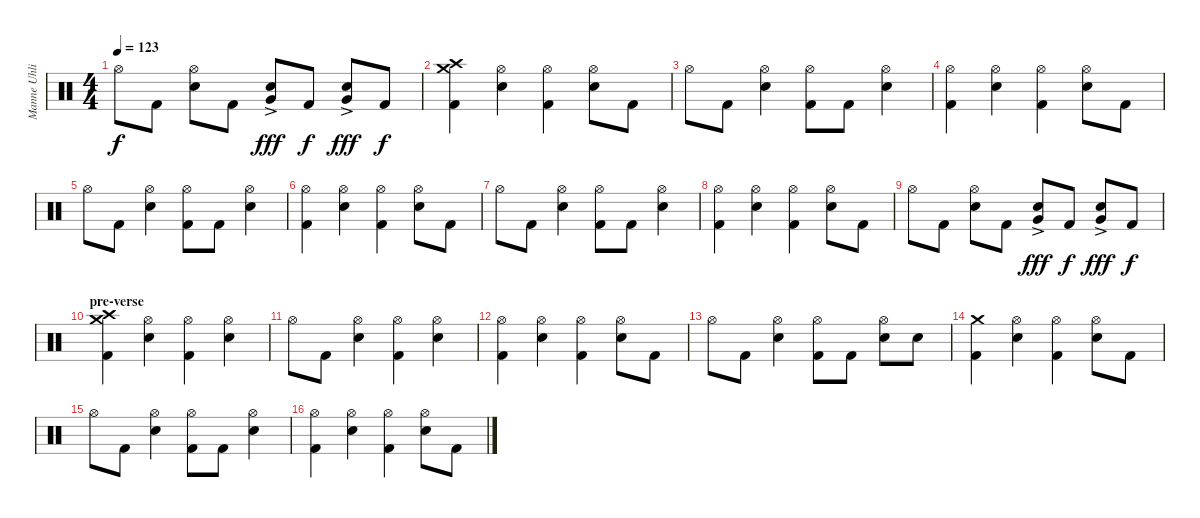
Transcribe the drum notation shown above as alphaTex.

\track ("Manne Uhlig" "Manne Uhli") {instrument percussion}
\staff {score}
\articulation defaults
\ts (4 4)
\tempo 123
\clef neutral
\ks c "Hi-Hat (open)".8{dy f} "Kick (hit) 2".8
("Hi-Hat (open)" "Snare (hit) 2").8 "Kick (hit) 2".8 ("Snare (hit) 2" "Very Low Tom (hit)"{ac}).8{dy fff} "Kick (hit) 2".8{dy f} ("Snare (hit) 2" "Very Low Tom (hit)"{ac}).8{dy fff} "Kick (hit) 2".8{dy f} |
("Crash high (hit)" "Crash medium (hit)" "Kick (hit) 2").4 ("Hi-Hat (open)" "Snare (hit) 2").4 ("Hi-Hat (open)" "Kick (hit) 2").4 ("Hi-Hat (open)" "Snare (hit) 2").8 "Kick (hit) 2".8 |
"Hi-Hat (open)".8 "Kick (hit) 2".8 ("Hi-Hat (open)" "Snare (hit) 2").4 ("Hi-Hat (open)" "Kick (hit) 2").8 "Kick (hit) 2".8 ("Hi-Hat (open)" "Snare (hit) 2").4 |
("Hi-Hat (open)" "Kick (hit) 2").4 ("Hi-Hat (open)" "Snare (hit) 2").4 ("Hi-Hat (open)" "Kick (hit) 2").4 ("Hi-Hat (open)" "Snare (hit) 2").8 "Kick (hit) 2".8 |
"Hi-Hat (open)".8 "Kick (hit) 2".8 ("Hi-Hat (open)" "Snare (hit) 2").4 ("Hi-Hat (open)" "Kick (hit) 2").8 "Kick (hit) 2".8 ("Hi-Hat (open)" "Snare (hit) 2").4 |
("Hi-Hat (open)" "Kick (hit) 2").4 ("Hi-Hat (open)" "Snare (hit) 2").4 ("Hi-Hat (open)" "Kick (hit) 2").4 ("Hi-Hat (open)" "Snare (hit) 2").8 "Kick (hit) 2".8 |
"Hi-Hat (open)".8 "Kick (hit) 2".8 ("Hi-Hat (open)" "Snare (hit) 2").4 ("Hi-Hat (open)" "Kick (hit) 2").8 "Kick (hit) 2".8 ("Hi-Hat (open)" "Snare (hit) 2").4 |
("Hi-Hat (open)" "Kick (hit) 2").4 ("Hi-Hat (open)" "Snare (hit) 2").4 ("Hi-Hat (open)" "Kick (hit) 2").4 ("Hi-Hat (open)" "Snare (hit) 2").8 "Kick (hit) 2".8 |
"Hi-Hat (open)".8 "Kick (hit) 2".8 ("Hi-Hat (open)" "Snare (hit) 2").8 "Kick (hit) 2".8 ("Snare (hit) 2" "Very Low Tom (hit)"{ac}).8{dy fff} "Kick (hit) 2".8{dy f} ("Snare (hit) 2" "Very Low Tom (hit)"{ac}).8{dy fff} "Kick (hit) 2".8{dy f} |
\section ("" "pre-verse")
("Crash high (hit)" "Crash medium (hit)" "Kick (hit) 2").4 ("Hi-Hat (open)" "Snare (hit) 2").4 ("Hi-Hat (open)" "Kick (hit) 2").4 ("Hi-Hat (open)" "Snare (hit) 2").4 |
"Hi-Hat (open)".8 "Kick (hit) 2".8 ("Hi-Hat (open)" "Snare (hit) 2").4 ("Hi-Hat (open)" "Kick (hit) 2").4 ("Hi-Hat (open)" "Snare (hit) 2").4 |
("Hi-Hat (open)" "Kick (hit) 2").4 ("Hi-Hat (open)" "Snare (hit) 2").4 ("Hi-Hat (open)" "Kick (hit) 2").4 ("Hi-Hat (open)" "Snare (hit) 2").8 "Kick (hit) 2".8 |
"Hi-Hat (open)".8 "Kick (hit) 2".8 ("Hi-Hat (open)" "Snare (hit) 2").4 ("Hi-Hat (open)" "Kick (hit) 2").8 "Kick (hit) 2".8 ("Hi-Hat (open)" "Snare (hit) 2").8 "Snare (hit) 2".8 |
("Crash medium (hit)" "Kick (hit) 2").4 ("Hi-Hat (open)" "Snare (hit) 2").4 ("Hi-Hat (open)" "Kick (hit) 2").4 ("Hi-Hat (open)" "Snare (hit) 2").8 "Kick (hit) 2".8 |
"Hi-Hat (open)".8 "Kick (hit) 2".8 ("Hi-Hat (open)" "Snare (hit) 2").4 ("Hi-Hat (open)" "Kick (hit) 2").8 "Kick (hit) 2".8 ("Hi-Hat (open)" "Snare (hit) 2").4 |
("Hi-Hat (open)" "Kick (hit) 2").4 ("Hi-Hat (open)" "Snare (hit) 2").4 ("Hi-Hat (open)" "Kick (hit) 2").4 ("Hi-Hat (open)" "Snare (hit) 2").8 "Kick (hit) 2".8
